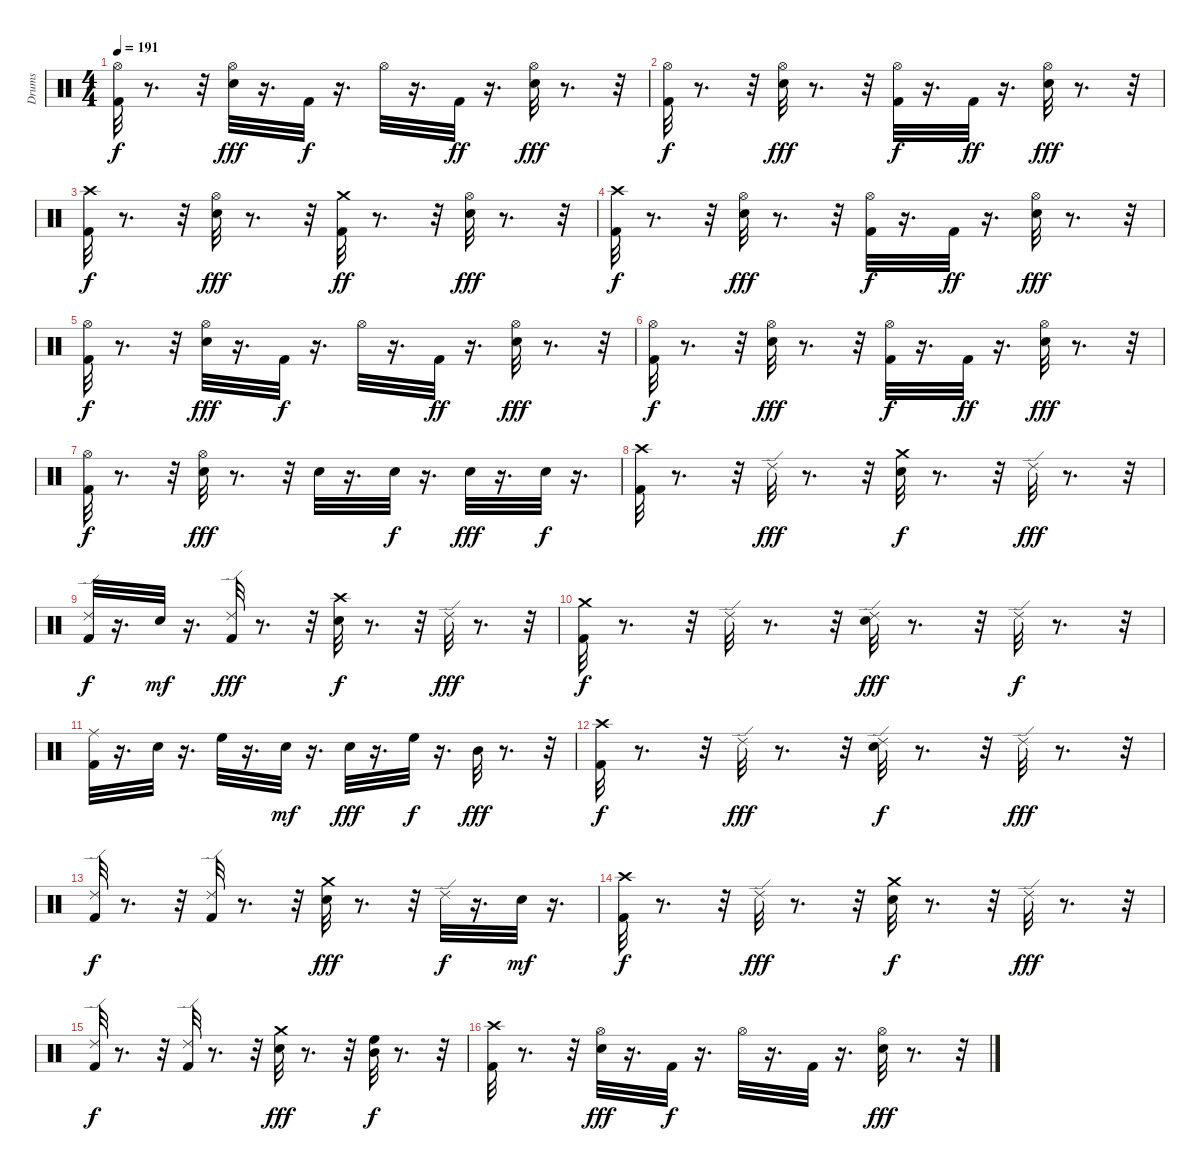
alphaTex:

\track ("Drums" "Drums") {instrument percussion}
\staff {score}
\articulation defaults
\ts (4 4)
\tempo 191
\clef neutral
\ks c
("Kick (hit) 2" "Hi-Hat (open)").32{dy f} r.8{d} r.32 ("Snare (hit) 2" "Hi-Hat (open)").32{dy fff} r.16{d} "Kick (hit) 2".32{dy f} r.16{d} "Hi-Hat (open)".32 r.16{d} "Kick (hit) 2".32{dy ff} r.16{d} ("Snare (hit) 2" "Hi-Hat (open)").32{dy fff} r.8{d} r.32 |
("Kick (hit) 2" "Hi-Hat (open)").32{dy f} r.8{d} r.32 ("Snare (hit) 2" "Hi-Hat (open)").32{dy fff} r.8{d} r.32 ("Kick (hit) 2" "Hi-Hat (open)").32{dy f} r.16{d} "Kick (hit) 2".32{dy ff} r.16{d} ("Snare (hit) 2" "Hi-Hat (open)").32{dy fff} r.8{d} r.32 |
("Crash high (hit)" "Kick (hit) 2").32{dy f} r.8{d} r.32 ("Snare (hit) 2" "Hi-Hat (open)").32{dy fff} r.8{d} r.32 ("Kick (hit) 2" "Crash medium (hit)").32{dy ff} r.8{d} r.32 ("Snare (hit) 2" "Hi-Hat (open)").32{dy fff} r.8{d} r.32 |
("Crash high (hit)" "Kick (hit) 2").32{dy f} r.8{d} r.32 ("Snare (hit) 2" "Hi-Hat (open)").32{dy fff} r.8{d} r.32 ("Kick (hit) 2" "Hi-Hat (open)").32{dy f} r.16{d} "Kick (hit) 2".32{dy ff} r.16{d} ("Snare (hit) 2" "Hi-Hat (open)").32{dy fff} r.8{d} r.32 |
("Kick (hit) 2" "Hi-Hat (open)").32{dy f} r.8{d} r.32 ("Snare (hit) 2" "Hi-Hat (open)").32{dy fff} r.16{d} "Kick (hit) 2".32{dy f} r.16{d} "Hi-Hat (open)".32 r.16{d} "Kick (hit) 2".32{dy ff} r.16{d} ("Snare (hit) 2" "Hi-Hat (open)").32{dy fff} r.8{d} r.32 |
("Kick (hit) 2" "Hi-Hat (open)").32{dy f} r.8{d} r.32 ("Snare (hit) 2" "Hi-Hat (open)").32{dy fff} r.8{d} r.32 ("Kick (hit) 2" "Hi-Hat (open)").32{dy f} r.16{d} "Kick (hit) 2".32{dy ff} r.16{d} ("Snare (hit) 2" "Hi-Hat (open)").32{dy fff} r.8{d} r.32 |
("Kick (hit) 2" "Hi-Hat (open)").32{dy f} r.8{d} r.32 ("Snare (hit) 2" "Hi-Hat (open)").32{dy fff} r.8{d} r.32 "Snare (hit) 2".32 r.16{d} "Snare (hit) 2".32{dy f} r.16{d} "Snare (hit) 2".32{dy fff} r.16{d} "Snare (hit) 2".32{dy f} r.16{d} |
("Kick (hit) 2" "Crash high (hit)").32 r.8{d} r.32 "Ride (edge) 2".32{dy fff} r.8{d} r.32 ("Snare (hit) 2" "Crash medium (hit)").32{dy f} r.8{d} r.32 "Ride (edge) 2".32{dy fff} r.8{d} r.32 |
("Kick (hit) 2" "Ride (edge) 2").32{dy f} r.16{d} "Snare (hit) 2".32{dy mf} r.16{d} ("Kick (hit) 2" "Ride (edge) 2").32{dy fff} r.8{d} r.32 ("Snare (hit) 2" "Crash high (hit)").32{dy f} r.8{d} r.32 "Ride (edge) 2".32{dy fff} r.8{d} r.32 |
("Kick (hit) 2" "Crash medium (hit)").32{dy f} r.8{d} r.32 "Ride (edge) 2".32 r.8{d} r.32 ("Snare (hit) 2" "Ride (edge) 2").32{dy fff} r.8{d} r.32 "Ride (edge) 2".32{dy f} r.8{d} r.32 |
("Ride (middle)" "Kick (hit) 2").32 r.16{d} "Snare (hit) 2".32 r.16{d} "High Floor Tom (hit)".32 r.16{d} "Snare (hit) 2".32{dy mf} r.16{d} "Snare (hit) 2".32{dy fff} r.16{d} "High Floor Tom (hit)".32{dy f} r.16{d} "Mid Tom (hit)".32{dy fff} r.8{d} r.32 |
("Kick (hit) 2" "Crash high (hit)").32{dy f} r.8{d} r.32 "Ride (edge) 2".32{dy fff} r.8{d} r.32 ("Snare (hit) 2" "Ride (edge) 2").32{dy f} r.8{d} r.32 "Ride (edge) 2".32{dy fff} r.8{d} r.32 |
("Kick (hit) 2" "Ride (edge) 2").32{dy f} r.8{d} r.32 ("Kick (hit) 2" "Ride (edge) 2").32 r.8{d} r.32 ("Snare (hit) 2" "Crash medium (hit)").32{dy fff} r.8{d} r.32 "Ride (edge) 2".32{dy f} r.16{d} "Snare (hit) 2".32{dy mf} r.16{d} |
("Kick (hit) 2" "Crash high (hit)").32{dy f} r.8{d} r.32 "Ride (edge) 2".32{dy fff} r.8{d} r.32 ("Snare (hit) 2" "Crash medium (hit)").32{dy f} r.8{d} r.32 "Ride (edge) 2".32{dy fff} r.8{d} r.32 |
("Kick (hit) 2" "Ride (edge) 2").32{dy f} r.8{d} r.32 ("Kick (hit) 2" "Ride (edge) 2").32 r.8{d} r.32 ("Snare (hit) 2" "Crash medium (hit)").32{dy fff} r.8{d} r.32 ("High Floor Tom (hit)" "Mid Tom (hit)").32{dy f} r.8{d} r.32 |
("Kick (hit) 2" "Crash high (hit)").32 r.8{d} r.32 ("Hi-Hat (open)" "Snare (hit) 2").32{dy fff} r.16{d} "Kick (hit) 2".32{dy f} r.16{d} "Hi-Hat (open)".32 r.16{d} "Kick (hit) 2".32 r.16{d} ("Hi-Hat (open)" "Snare (hit) 2").32{dy fff} r.8{d} r.32
